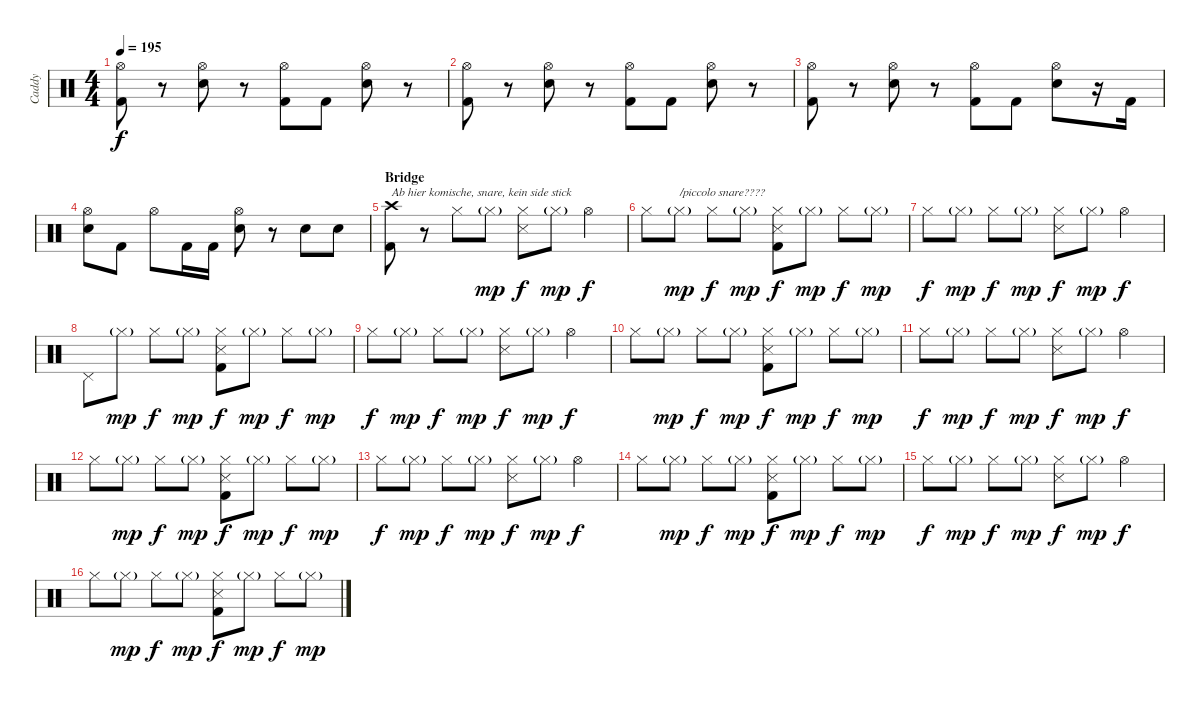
\track ("Caddy" "Caddy") {instrument percussion}
\staff {score}
\articulation defaults
\ts (4 4)
\tempo 195
\clef neutral
\ks c
("Hi-Hat (open)" "Kick (hit) 2").8{dy f} r.8 ("Hi-Hat (open)" "Electric Snare (hit)").8 r.8 ("Hi-Hat (open)" "Kick (hit) 2").8 "Kick (hit) 2".8 ("Hi-Hat (open)" "Electric Snare (hit)").8 r.8 |
("Hi-Hat (open)" "Kick (hit) 2").8 r.8 ("Hi-Hat (open)" "Electric Snare (hit)").8 r.8 ("Hi-Hat (open)" "Kick (hit) 2").8 "Kick (hit) 2".8 ("Hi-Hat (open)" "Electric Snare (hit)").8 r.8 |
("Hi-Hat (open)" "Kick (hit) 2").8 r.8 ("Hi-Hat (open)" "Electric Snare (hit)").8 r.8 ("Hi-Hat (open)" "Kick (hit) 2").8 "Kick (hit) 2".8 ("Hi-Hat (open)" "Electric Snare (hit)").8 r.16 "Kick (hit) 2".16 |
("Hi-Hat (open)" "Electric Snare (hit)").8 "Kick (hit) 2".8 "Hi-Hat (open)".8 "Kick (hit) 2".16 "Kick (hit) 2".16 ("Hi-Hat (open)" "Electric Snare (hit)").8 r.8 "Electric Snare (hit)".8 "Electric Snare (hit)".8 |
\section ("" "Bridge")
("Crash high (hit)" "Kick (hit) 2").8{txt "Ab hier komische, snare, kein side stick "} r.8 "Hi-Hat (closed)".8 "Hi-Hat (closed)"{g}.8{dy mp} ("Hi-Hat (closed)" "Snare (side stick) 3").8{dy f} "Hi-Hat (closed)"{g}.8{dy mp} "Hi-Hat (open)".4{dy f} |
"Hi-Hat (closed)".8 "Hi-Hat (closed)"{g}.8{txt "/piccolo snare????" dy mp} "Hi-Hat (closed)".8{dy f} "Hi-Hat (closed)"{g}.8{dy mp} ("Hi-Hat (closed)" "Snare (side stick) 3" "Kick (hit) 2").8{dy f} "Hi-Hat (closed)"{g}.8{dy mp} "Hi-Hat (closed)".8{dy f} "Hi-Hat (closed)"{g}.8{dy mp} |
"Hi-Hat (closed)".8{dy f} "Hi-Hat (closed)"{g}.8{dy mp} "Hi-Hat (closed)".8{dy f} "Hi-Hat (closed)"{g}.8{dy mp} ("Hi-Hat (closed)" "Snare (side stick) 3").8{dy f} "Hi-Hat (closed)"{g}.8{dy mp} "Hi-Hat (open)".4{dy f} |
"Pedal Hi-Hat (hit)".8 "Hi-Hat (closed)"{g}.8{dy mp} "Hi-Hat (closed)".8{dy f} "Hi-Hat (closed)"{g}.8{dy mp} ("Hi-Hat (closed)" "Snare (side stick) 3" "Kick (hit) 2").8{dy f} "Hi-Hat (closed)"{g}.8{dy mp} "Hi-Hat (closed)".8{dy f} "Hi-Hat (closed)"{g}.8{dy mp} |
"Hi-Hat (closed)".8{dy f} "Hi-Hat (closed)"{g}.8{dy mp} "Hi-Hat (closed)".8{dy f} "Hi-Hat (closed)"{g}.8{dy mp} ("Hi-Hat (closed)" "Snare (side stick) 3").8{dy f} "Hi-Hat (closed)"{g}.8{dy mp} "Hi-Hat (open)".4{dy f} |
"Hi-Hat (closed)".8 "Hi-Hat (closed)"{g}.8{dy mp} "Hi-Hat (closed)".8{dy f} "Hi-Hat (closed)"{g}.8{dy mp} ("Hi-Hat (closed)" "Snare (side stick) 3" "Kick (hit) 2").8{dy f} "Hi-Hat (closed)"{g}.8{dy mp} "Hi-Hat (closed)".8{dy f} "Hi-Hat (closed)"{g}.8{dy mp} |
"Hi-Hat (closed)".8{dy f} "Hi-Hat (closed)"{g}.8{dy mp} "Hi-Hat (closed)".8{dy f} "Hi-Hat (closed)"{g}.8{dy mp} ("Hi-Hat (closed)" "Snare (side stick) 3").8{dy f} "Hi-Hat (closed)"{g}.8{dy mp} "Hi-Hat (open)".4{dy f} |
"Hi-Hat (closed)".8 "Hi-Hat (closed)"{g}.8{dy mp} "Hi-Hat (closed)".8{dy f} "Hi-Hat (closed)"{g}.8{dy mp} ("Hi-Hat (closed)" "Snare (side stick) 3" "Kick (hit) 2").8{dy f} "Hi-Hat (closed)"{g}.8{dy mp} "Hi-Hat (closed)".8{dy f} "Hi-Hat (closed)"{g}.8{dy mp} |
"Hi-Hat (closed)".8{dy f} "Hi-Hat (closed)"{g}.8{dy mp} "Hi-Hat (closed)".8{dy f} "Hi-Hat (closed)"{g}.8{dy mp} ("Hi-Hat (closed)" "Snare (side stick) 3").8{dy f} "Hi-Hat (closed)"{g}.8{dy mp} "Hi-Hat (open)".4{dy f} |
"Hi-Hat (closed)".8 "Hi-Hat (closed)"{g}.8{dy mp} "Hi-Hat (closed)".8{dy f} "Hi-Hat (closed)"{g}.8{dy mp} ("Hi-Hat (closed)" "Snare (side stick) 3" "Kick (hit) 2").8{dy f} "Hi-Hat (closed)"{g}.8{dy mp} "Hi-Hat (closed)".8{dy f} "Hi-Hat (closed)"{g}.8{dy mp} |
"Hi-Hat (closed)".8{dy f} "Hi-Hat (closed)"{g}.8{dy mp} "Hi-Hat (closed)".8{dy f} "Hi-Hat (closed)"{g}.8{dy mp} ("Hi-Hat (closed)" "Snare (side stick) 3").8{dy f} "Hi-Hat (closed)"{g}.8{dy mp} "Hi-Hat (open)".4{dy f} |
"Hi-Hat (closed)".8 "Hi-Hat (closed)"{g}.8{dy mp} "Hi-Hat (closed)".8{dy f} "Hi-Hat (closed)"{g}.8{dy mp} ("Hi-Hat (closed)" "Snare (side stick) 3" "Kick (hit) 2").8{dy f} "Hi-Hat (closed)"{g}.8{dy mp} "Hi-Hat (closed)".8{dy f} "Hi-Hat (closed)"{g}.8{dy mp}
